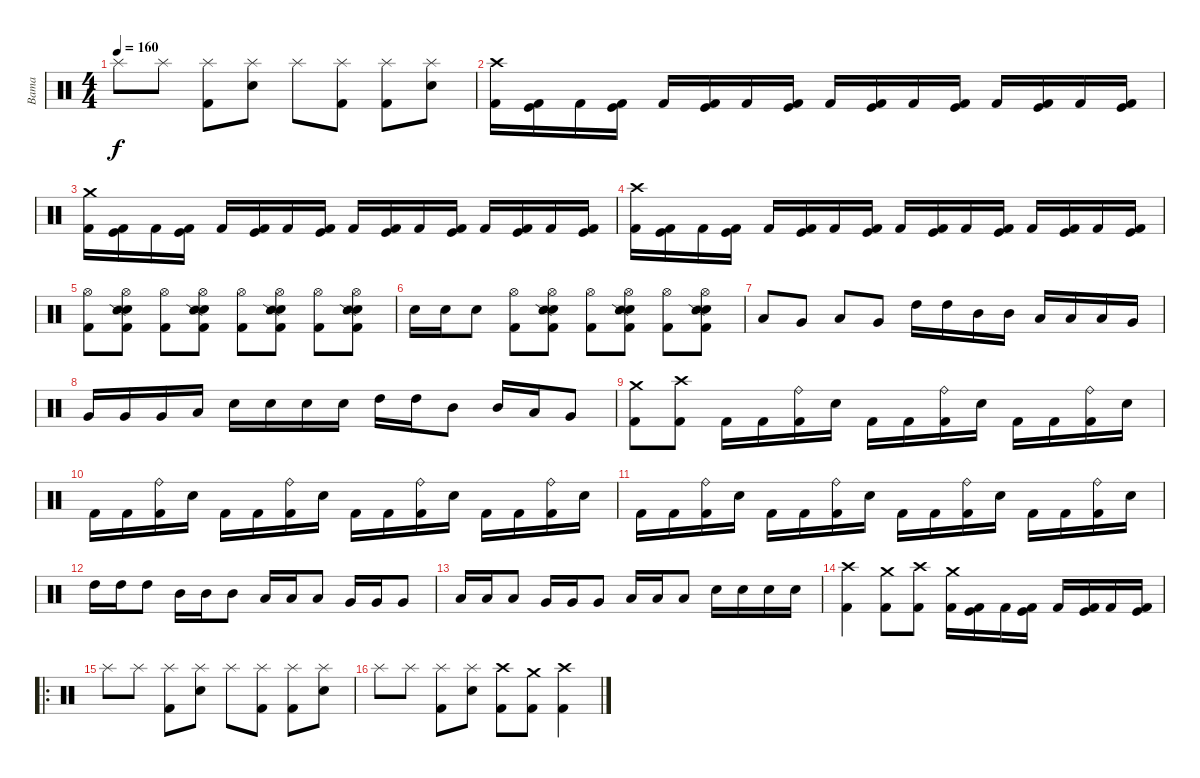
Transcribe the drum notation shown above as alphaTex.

\track ("Bama" "Bama") {instrument percussion}
\staff {score}
\articulation defaults
\ts (4 4)
\tempo 160
\clef neutral
\ks c "Splash (hit)".8{dy f} "Splash (hit)".8
("Splash (hit)" "Kick (hit) 2").8 ("Splash (hit)" "Electric Snare (hit)").8 "Splash (hit)".8 ("Splash (hit)" "Kick (hit) 2").8 ("Splash (hit)" "Kick (hit) 2").8 ("Splash (hit)" "Electric Snare (hit)").8 |
("Crash high (hit)" "Kick (hit) 2").16 ("Kick (hit)" "Kick (hit) 2").16 "Kick (hit) 2".16 ("Kick (hit)" "Kick (hit) 2").16 "Kick (hit) 2".16 ("Kick (hit)" "Kick (hit) 2").16 "Kick (hit) 2".16 ("Kick (hit)" "Kick (hit) 2").16 "Kick (hit) 2".16 ("Kick (hit)" "Kick (hit) 2").16 "Kick (hit) 2".16 ("Kick (hit)" "Kick (hit) 2").16 "Kick (hit) 2".16 ("Kick (hit)" "Kick (hit) 2").16 "Kick (hit) 2".16 ("Kick (hit)" "Kick (hit) 2").16 |
("Crash medium (hit)" "Kick (hit) 2").16 ("Kick (hit)" "Kick (hit) 2").16 "Kick (hit) 2".16 ("Kick (hit)" "Kick (hit) 2").16 "Kick (hit) 2".16 ("Kick (hit)" "Kick (hit) 2").16 "Kick (hit) 2".16 ("Kick (hit)" "Kick (hit) 2").16 "Kick (hit) 2".16 ("Kick (hit)" "Kick (hit) 2").16 "Kick (hit) 2".16 ("Kick (hit)" "Kick (hit) 2").16 "Kick (hit) 2".16 ("Kick (hit)" "Kick (hit) 2").16 "Kick (hit) 2".16 ("Kick (hit)" "Kick (hit) 2").16 |
("Crash high (hit)" "Kick (hit) 2").16 ("Kick (hit)" "Kick (hit) 2").16 "Kick (hit) 2".16 ("Kick (hit)" "Kick (hit) 2").16 "Kick (hit) 2".16 ("Kick (hit)" "Kick (hit) 2").16 "Kick (hit) 2".16 ("Kick (hit)" "Kick (hit) 2").16 "Kick (hit) 2".16 ("Kick (hit)" "Kick (hit) 2").16 "Kick (hit) 2".16 ("Kick (hit)" "Kick (hit) 2").16 "Kick (hit) 2".16 ("Kick (hit)" "Kick (hit) 2").16 "Kick (hit) 2".16 ("Kick (hit)" "Kick (hit) 2").16 |
("Hi-Hat (open)" "Kick (hit) 2").8 ("Hi-Hat (open)" "Electric Snare (hit)" "Snare (side stick) 2" "Kick (hit) 2").8 ("Hi-Hat (open)" "Kick (hit) 2").8 ("Hi-Hat (open)" "Electric Snare (hit)" "Snare (side stick) 2" "Kick (hit) 2").8 ("Hi-Hat (open)" "Kick (hit) 2").8 ("Hi-Hat (open)" "Electric Snare (hit)" "Snare (side stick) 2" "Kick (hit) 2").8 ("Hi-Hat (open)" "Kick (hit) 2").8 ("Hi-Hat (open)" "Electric Snare (hit)" "Snare (side stick) 2" "Kick (hit) 2").8 |
"Electric Snare (hit)".16 "Electric Snare (hit)".16 "Electric Snare (hit)".8 ("Hi-Hat (open)" "Kick (hit) 2").8 ("Hi-Hat (open)" "Electric Snare (hit)" "Snare (side stick) 2" "Kick (hit) 2").8 ("Hi-Hat (open)" "Kick (hit) 2").8 ("Hi-Hat (open)" "Electric Snare (hit)" "Snare (side stick) 2" "Kick (hit) 2").8 ("Hi-Hat (open)" "Kick (hit) 2").8 ("Hi-Hat (open)" "Electric Snare (hit)" "Snare (side stick) 2" "Kick (hit) 2").8 |
"Low Tom (hit)".8 "Very Low Tom (hit)".8 "Low Tom (hit)".8 "Very Low Tom (hit)".8 "High Tom (hit)".16 "High Tom (hit)".16 "Mid Tom (hit)".16 "Mid Tom (hit)".16 "Low Tom (hit)".16 "Low Tom (hit)".16 "Low Tom (hit)".16 "Very Low Tom (hit)".16 |
"Very Low Tom (hit)".16 "Very Low Tom (hit)".16 "Very Low Tom (hit)".16 "Low Floor Tom (hit)".16 "Electric Snare (hit)".16 "Electric Snare (hit)".16 "Electric Snare (hit)".16 "Electric Snare (hit)".16 "High Tom (hit)".16 "High Tom (hit)".16 "Mid Tom (hit)".8 "Mid Tom (hit)".16 "Low Tom (hit)".16 "Very Low Tom (hit)".8 |
("Crash medium (hit)" "Kick (hit) 2").8 ("Crash high (hit)" "Kick (hit) 2").8 "Kick (hit) 2".16 "Kick (hit) 2".16 ("Ride (bell)" "Kick (hit) 2").16 "Electric Snare (hit)".16 "Kick (hit) 2".16 "Kick (hit) 2".16 ("Ride (bell)" "Kick (hit) 2").16 "Electric Snare (hit)".16 "Kick (hit) 2".16 "Kick (hit) 2".16 ("Ride (bell)" "Kick (hit) 2").16 "Electric Snare (hit)".16 |
"Kick (hit) 2".16 "Kick (hit) 2".16 ("Ride (bell)" "Kick (hit) 2").16 "Electric Snare (hit)".16 "Kick (hit) 2".16 "Kick (hit) 2".16 ("Ride (bell)" "Kick (hit) 2").16 "Electric Snare (hit)".16 "Kick (hit) 2".16 "Kick (hit) 2".16 ("Ride (bell)" "Kick (hit) 2").16 "Electric Snare (hit)".16 "Kick (hit) 2".16 "Kick (hit) 2".16 ("Ride (bell)" "Kick (hit) 2").16 "Electric Snare (hit)".16 |
"Kick (hit) 2".16 "Kick (hit) 2".16 ("Ride (bell)" "Kick (hit) 2").16 "Electric Snare (hit)".16 "Kick (hit) 2".16 "Kick (hit) 2".16 ("Ride (bell)" "Kick (hit) 2").16 "Electric Snare (hit)".16 "Kick (hit) 2".16 "Kick (hit) 2".16 ("Ride (bell)" "Kick (hit) 2").16 "Electric Snare (hit)".16 "Kick (hit) 2".16 "Kick (hit) 2".16 ("Ride (bell)" "Kick (hit) 2").16 "Electric Snare (hit)".16 |
"High Tom (hit)".16 "High Tom (hit)".16 "High Tom (hit)".8 "Mid Tom (hit)".16 "Mid Tom (hit)".16 "Mid Tom (hit)".8 "Low Tom (hit)".16 "Low Tom (hit)".16 "Low Tom (hit)".8 "Very Low Tom (hit)".16 "Very Low Tom (hit)".16 "Very Low Tom (hit)".8 |
"Low Tom (hit)".16 "Low Tom (hit)".16 "Low Tom (hit)".8 "Very Low Tom (hit)".16 "Very Low Tom (hit)".16 "Very Low Tom (hit)".8 "Low Floor Tom (hit)".16 "Low Floor Tom (hit)".16 "Low Floor Tom (hit)".8 "Electric Snare (hit)".16 "Electric Snare (hit)".16 "Electric Snare (hit)".16 "Electric Snare (hit)".16 |
("Crash high (hit)" "Kick (hit) 2").4 ("Crash medium (hit)" "Kick (hit) 2").8 ("Crash high (hit)" "Kick (hit) 2").8 ("Crash medium (hit)" "Kick (hit) 2").16 ("Kick (hit)" "Kick (hit) 2").16 "Kick (hit) 2".16 ("Kick (hit)" "Kick (hit) 2").16 "Kick (hit) 2".16 ("Kick (hit)" "Kick (hit) 2").16 "Kick (hit) 2".16 ("Kick (hit)" "Kick (hit) 2").16 |
\ro "Splash (hit)".8 "Splash (hit)".8
("Splash (hit)" "Kick (hit) 2").8 ("Splash (hit)" "Electric Snare (hit)").8 "Splash (hit)".8 ("Splash (hit)" "Kick (hit) 2").8 ("Splash (hit)" "Kick (hit) 2").8 ("Splash (hit)" "Electric Snare (hit)").8 |
"Splash (hit)".8 "Splash (hit)".8 ("Splash (hit)" "Kick (hit) 2").8 ("Splash (hit)" "Electric Snare (hit)").8 ("Crash high (hit)" "Kick (hit) 2").8 ("Crash medium (hit)" "Kick (hit) 2").8 ("Crash high (hit)" "Kick (hit) 2").4
